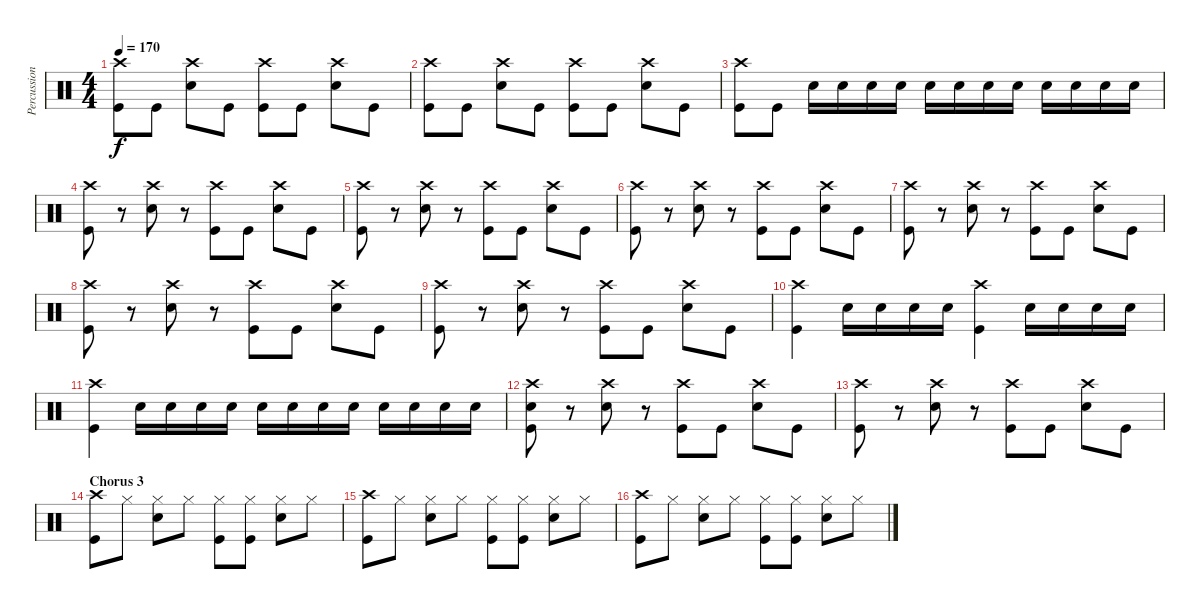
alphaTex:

\track ("Percussion" "Percussion") {instrument percussion}
\staff {score}
\articulation defaults
\ts (4 4)
\tempo 170
\clef neutral
\ks c
("Crash high (hit)" "Kick (hit)").8{dy f} "Kick (hit)".8 ("Crash high (hit)" "Snare (hit) 2").8 "Kick (hit)".8 ("Crash high (hit)" "Kick (hit)").8 "Kick (hit)".8 ("Crash high (hit)" "Snare (hit) 2").8 "Kick (hit)".8 |
("Crash high (hit)" "Kick (hit)").8 "Kick (hit)".8 ("Crash high (hit)" "Snare (hit) 2").8 "Kick (hit)".8 ("Crash high (hit)" "Kick (hit)").8 "Kick (hit)".8 ("Crash high (hit)" "Snare (hit) 2").8 "Kick (hit)".8 |
("Crash high (hit)" "Kick (hit)").8 "Kick (hit)".8 "Snare (hit) 2".16 "Snare (hit) 2".16 "Snare (hit) 2".16 "Snare (hit) 2".16 "Snare (hit) 2".16 "Snare (hit) 2".16 "Snare (hit) 2".16 "Snare (hit) 2".16 "Snare (hit) 2".16 "Snare (hit) 2".16 "Snare (hit) 2".16 "Snare (hit) 2".16 |
("Crash high (hit)" "Kick (hit)").8 r.8 ("Crash high (hit)" "Snare (hit) 2").8 r.8 ("Crash high (hit)" "Kick (hit)").8 "Kick (hit)".8 ("Crash high (hit)" "Snare (hit) 2").8 "Kick (hit)".8 |
("Crash high (hit)" "Kick (hit)").8 r.8 ("Crash high (hit)" "Snare (hit) 2").8 r.8 ("Crash high (hit)" "Kick (hit)").8 "Kick (hit)".8 ("Crash high (hit)" "Snare (hit) 2").8 "Kick (hit)".8 |
("Crash high (hit)" "Kick (hit)").8 r.8 ("Crash high (hit)" "Snare (hit) 2").8 r.8 ("Crash high (hit)" "Kick (hit)").8 "Kick (hit)".8 ("Crash high (hit)" "Snare (hit) 2").8 "Kick (hit)".8 |
("Crash high (hit)" "Kick (hit)").8 r.8 ("Crash high (hit)" "Snare (hit) 2").8 r.8 ("Crash high (hit)" "Kick (hit)").8 "Kick (hit)".8 ("Crash high (hit)" "Snare (hit) 2").8 "Kick (hit)".8 |
("Crash high (hit)" "Kick (hit)").8 r.8 ("Crash high (hit)" "Snare (hit) 2").8 r.8 ("Crash high (hit)" "Kick (hit)").8 "Kick (hit)".8 ("Crash high (hit)" "Snare (hit) 2").8 "Kick (hit)".8 |
("Crash high (hit)" "Kick (hit)").8 r.8 ("Crash high (hit)" "Snare (hit) 2").8 r.8 ("Crash high (hit)" "Kick (hit)").8 "Kick (hit)".8 ("Crash high (hit)" "Snare (hit) 2").8 "Kick (hit)".8 |
("Crash high (hit)" "Kick (hit)").4 "Snare (hit) 2".16 "Snare (hit) 2".16 "Snare (hit) 2".16 "Snare (hit) 2".16 ("Crash high (hit)" "Kick (hit)").4 "Snare (hit) 2".16 "Snare (hit) 2".16 "Snare (hit) 2".16 "Snare (hit) 2".16 |
("Crash high (hit)" "Kick (hit)").4 "Snare (hit) 2".16 "Snare (hit) 2".16 "Snare (hit) 2".16 "Snare (hit) 2".16 "Snare (hit) 2".16 "Snare (hit) 2".16 "Snare (hit) 2".16 "Snare (hit) 2".16 "Snare (hit) 2".16 "Snare (hit) 2".16 "Snare (hit) 2".16 "Snare (hit) 2".16 |
("Crash high (hit)" "Snare (hit) 2" "Kick (hit)").8 r.8 ("Crash high (hit)" "Snare (hit) 2").8 r.8 ("Crash high (hit)" "Kick (hit)").8 "Kick (hit)".8 ("Crash high (hit)" "Snare (hit) 2").8 "Kick (hit)".8 |
("Crash high (hit)" "Kick (hit)").8 r.8 ("Crash high (hit)" "Snare (hit) 2").8 r.8 ("Crash high (hit)" "Kick (hit)").8 "Kick (hit)".8 ("Crash high (hit)" "Snare (hit) 2").8 "Kick (hit)".8 |
\section ("" "Chorus 3")
("Crash high (hit)" "Kick (hit)").8 "Hi-Hat (closed)".8 ("Hi-Hat (closed)" "Snare (hit) 2").8 "Hi-Hat (closed)".8 ("Hi-Hat (closed)" "Kick (hit)").8 ("Hi-Hat (closed)" "Kick (hit)").8 ("Hi-Hat (closed)" "Snare (hit) 2").8 "Hi-Hat (closed)".8 |
("Crash high (hit)" "Kick (hit)").8 "Hi-Hat (closed)".8 ("Hi-Hat (closed)" "Snare (hit) 2").8 "Hi-Hat (closed)".8 ("Hi-Hat (closed)" "Kick (hit)").8 ("Hi-Hat (closed)" "Kick (hit)").8 ("Hi-Hat (closed)" "Snare (hit) 2").8 "Hi-Hat (closed)".8 |
("Crash high (hit)" "Kick (hit)").8 "Hi-Hat (closed)".8 ("Hi-Hat (closed)" "Snare (hit) 2").8 "Hi-Hat (closed)".8 ("Hi-Hat (closed)" "Kick (hit)").8 ("Hi-Hat (closed)" "Kick (hit)").8 ("Hi-Hat (closed)" "Snare (hit) 2").8 "Hi-Hat (closed)".8
